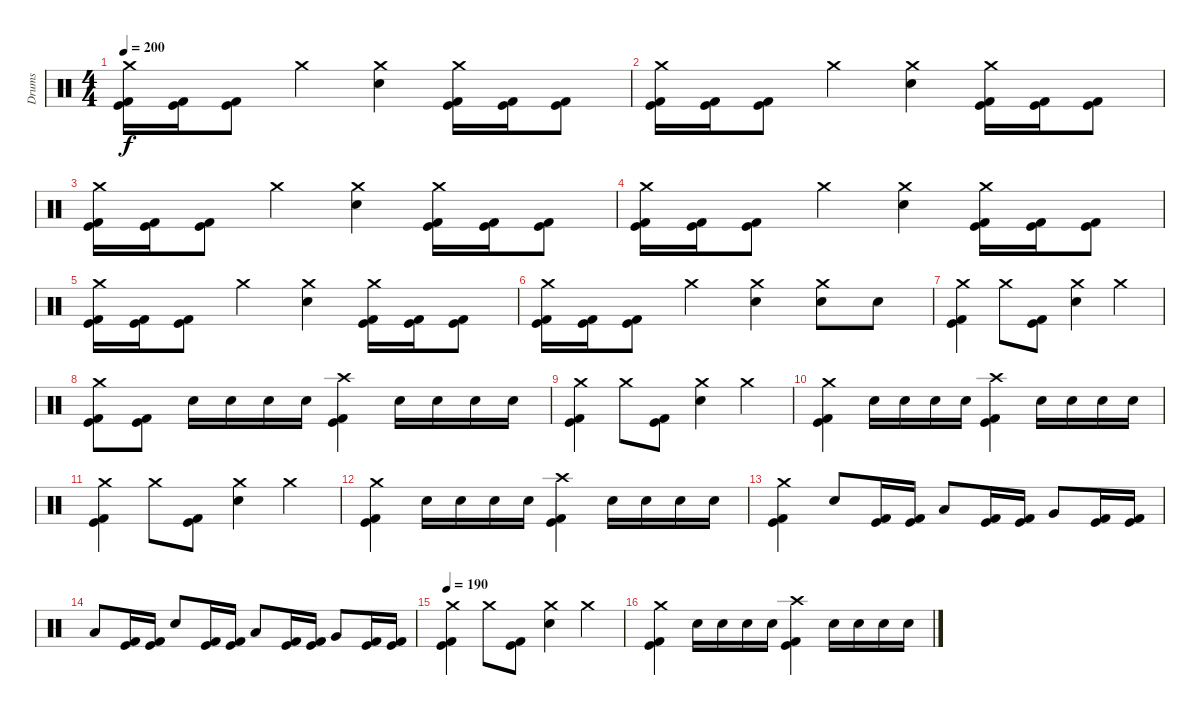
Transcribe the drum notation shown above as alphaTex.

\track ("Drums" "Drums") {instrument percussion}
\staff {score}
\articulation defaults
\ts (4 4)
\tempo 200
\clef neutral
\ks c
("Crash medium (hit)" "Kick (hit)" "Kick (hit) 2").16{dy f} ("Kick (hit)" "Kick (hit) 2").16 ("Kick (hit)" "Kick (hit) 2").8 "Crash medium (hit)".4 ("Crash medium (hit)" "Electric Snare (hit)").4 ("Crash medium (hit)" "Kick (hit)" "Kick (hit) 2").16 ("Kick (hit)" "Kick (hit) 2").16 ("Kick (hit)" "Kick (hit) 2").8 |
("Crash medium (hit)" "Kick (hit)" "Kick (hit) 2").16 ("Kick (hit)" "Kick (hit) 2").16 ("Kick (hit)" "Kick (hit) 2").8 "Crash medium (hit)".4 ("Crash medium (hit)" "Electric Snare (hit)").4 ("Crash medium (hit)" "Kick (hit)" "Kick (hit) 2").16 ("Kick (hit)" "Kick (hit) 2").16 ("Kick (hit)" "Kick (hit) 2").8 |
("Crash medium (hit)" "Kick (hit)" "Kick (hit) 2").16 ("Kick (hit)" "Kick (hit) 2").16 ("Kick (hit)" "Kick (hit) 2").8 "Crash medium (hit)".4 ("Crash medium (hit)" "Electric Snare (hit)").4 ("Crash medium (hit)" "Kick (hit)" "Kick (hit) 2").16 ("Kick (hit)" "Kick (hit) 2").16 ("Kick (hit)" "Kick (hit) 2").8 |
("Crash medium (hit)" "Kick (hit)" "Kick (hit) 2").16 ("Kick (hit)" "Kick (hit) 2").16 ("Kick (hit)" "Kick (hit) 2").8 "Crash medium (hit)".4 ("Crash medium (hit)" "Electric Snare (hit)").4 ("Crash medium (hit)" "Kick (hit)" "Kick (hit) 2").16 ("Kick (hit)" "Kick (hit) 2").16 ("Kick (hit)" "Kick (hit) 2").8 |
("Crash medium (hit)" "Kick (hit)" "Kick (hit) 2").16 ("Kick (hit)" "Kick (hit) 2").16 ("Kick (hit)" "Kick (hit) 2").8 "Crash medium (hit)".4 ("Crash medium (hit)" "Electric Snare (hit)").4 ("Crash medium (hit)" "Kick (hit)" "Kick (hit) 2").16 ("Kick (hit)" "Kick (hit) 2").16 ("Kick (hit)" "Kick (hit) 2").8 |
("Crash medium (hit)" "Kick (hit)" "Kick (hit) 2").16 ("Kick (hit)" "Kick (hit) 2").16 ("Kick (hit)" "Kick (hit) 2").8 "Crash medium (hit)".4 ("Crash medium (hit)" "Electric Snare (hit)").4 ("Crash medium (hit)" "Electric Snare (hit)").8 "Electric Snare (hit)".8 |
("Crash medium (hit)" "Kick (hit)" "Kick (hit) 2").4 "Crash medium (hit)".8 ("Kick (hit)" "Kick (hit) 2").8 ("Crash medium (hit)" "Electric Snare (hit)").4 "Crash medium (hit)".4 |
("Crash medium (hit)" "Kick (hit)" "Kick (hit) 2").8 ("Kick (hit)" "Kick (hit) 2").8 "Electric Snare (hit)".16 "Electric Snare (hit)".16 "Electric Snare (hit)".16 "Electric Snare (hit)".16 ("Crash high (hit)" "Kick (hit)" "Kick (hit) 2").4 "Electric Snare (hit)".16 "Electric Snare (hit)".16 "Electric Snare (hit)".16 "Electric Snare (hit)".16 |
("Crash medium (hit)" "Kick (hit)" "Kick (hit) 2").4 "Crash medium (hit)".8 ("Kick (hit)" "Kick (hit) 2").8 ("Crash medium (hit)" "Electric Snare (hit)").4 "Crash medium (hit)".4 |
("Crash medium (hit)" "Kick (hit)" "Kick (hit) 2").4 "Electric Snare (hit)".16 "Electric Snare (hit)".16 "Electric Snare (hit)".16 "Electric Snare (hit)".16 ("Crash high (hit)" "Kick (hit)" "Kick (hit) 2").4 "Electric Snare (hit)".16 "Electric Snare (hit)".16 "Electric Snare (hit)".16 "Electric Snare (hit)".16 |
("Crash medium (hit)" "Kick (hit)" "Kick (hit) 2").4 "Crash medium (hit)".8 ("Kick (hit)" "Kick (hit) 2").8 ("Crash medium (hit)" "Electric Snare (hit)").4 "Crash medium (hit)".4 |
("Crash medium (hit)" "Kick (hit)" "Kick (hit) 2").4 "Electric Snare (hit)".16 "Electric Snare (hit)".16 "Electric Snare (hit)".16 "Electric Snare (hit)".16 ("Crash high (hit)" "Kick (hit)" "Kick (hit) 2").4 "Electric Snare (hit)".16 "Electric Snare (hit)".16 "Electric Snare (hit)".16 "Electric Snare (hit)".16 |
("Crash medium (hit)" "Kick (hit)" "Kick (hit) 2").4 "Electric Snare (hit)".8 ("Kick (hit)" "Kick (hit) 2").16 ("Kick (hit)" "Kick (hit) 2").16 "Low Tom (hit)".8 ("Kick (hit)" "Kick (hit) 2").16 ("Kick (hit)" "Kick (hit) 2").16 "Very Low Tom (hit)".8 ("Kick (hit)" "Kick (hit) 2").16 ("Kick (hit)" "Kick (hit) 2").16 |
"Low Floor Tom (hit)".8 ("Kick (hit)" "Kick (hit) 2").16 ("Kick (hit)" "Kick (hit) 2").16 "Electric Snare (hit)".8 ("Kick (hit)" "Kick (hit) 2").16 ("Kick (hit)" "Kick (hit) 2").16 "Low Tom (hit)".8 ("Kick (hit)" "Kick (hit) 2").16 ("Kick (hit)" "Kick (hit) 2").16 "Very Low Tom (hit)".8 ("Kick (hit)" "Kick (hit) 2").16 ("Kick (hit)" "Kick (hit) 2").16 |
\tempo 190
("Crash medium (hit)" "Kick (hit)" "Kick (hit) 2").4 "Crash medium (hit)".8 ("Kick (hit)" "Kick (hit) 2").8 ("Crash medium (hit)" "Electric Snare (hit)").4 "Crash medium (hit)".4 |
("Crash medium (hit)" "Kick (hit)" "Kick (hit) 2").4 "Electric Snare (hit)".16 "Electric Snare (hit)".16 "Electric Snare (hit)".16 "Electric Snare (hit)".16 ("Crash high (hit)" "Kick (hit)" "Kick (hit) 2").4 "Electric Snare (hit)".16 "Electric Snare (hit)".16 "Electric Snare (hit)".16 "Electric Snare (hit)".16
